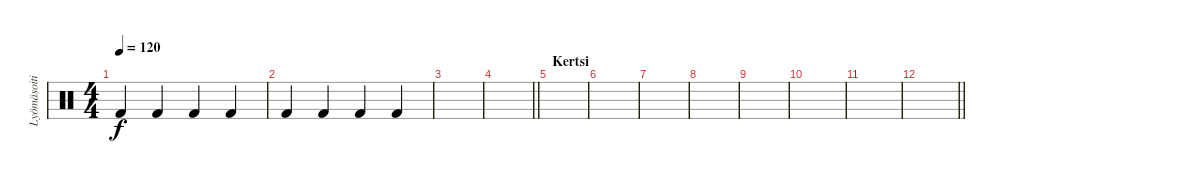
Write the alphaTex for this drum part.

\track ("Lyömäsoitin" "Lyömäsoiti") {instrument percussion}
\staff {score}
\articulation defaults
\ts (4 4)
\tempo 120
\clef neutral
\ks c "Kick (hit) 2".4{dy f} "Kick (hit) 2".4 "Kick (hit) 2".4 "Kick (hit) 2".4
|
"Kick (hit) 2".4 "Kick (hit) 2".4 "Kick (hit) 2".4 "Kick (hit) 2".4 |
|
\barLineRight lightlight
|
\section ("" "Kertsi")
|
|
|
|
|
|
|
\barLineRight lightlight
